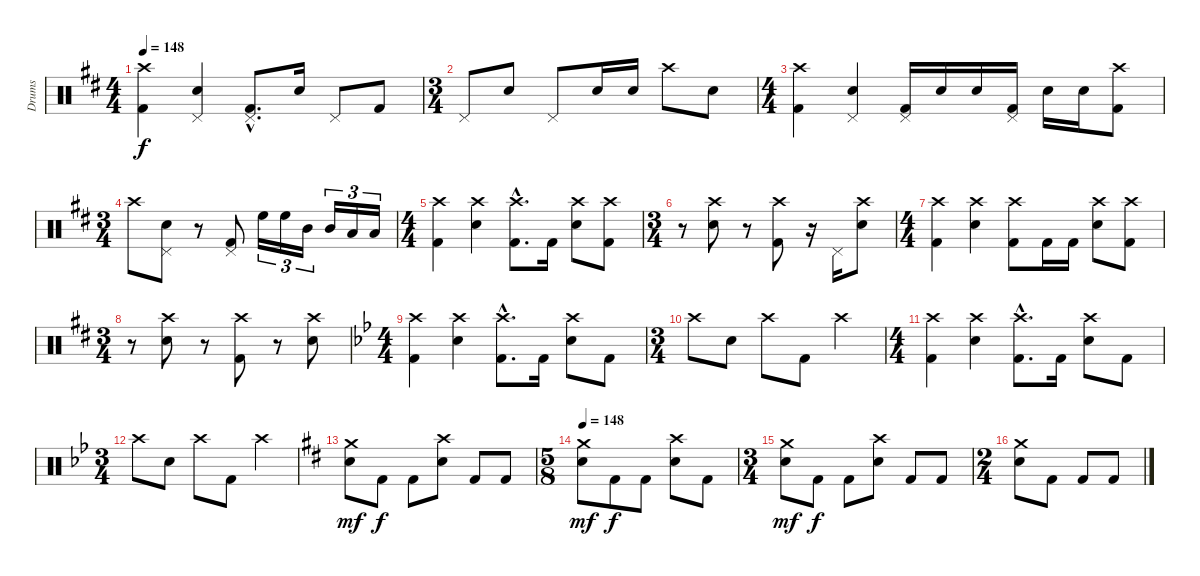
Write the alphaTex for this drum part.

\track ("Drums" "Drums") {instrument percussion}
\staff {score}
\articulation defaults
\ts (4 4)
\tempo 148
\clef neutral
\ks d
("Kick (hit) 2" "Crash high (hit)").4{dy f} ("Electric Snare (hit)" "Pedal Hi-Hat (hit)").4 ("Kick (hit) 2"{hac} "Pedal Hi-Hat (hit)"{hac}).8{d} "Electric Snare (hit)".16 "Pedal Hi-Hat (hit)".8 "Kick (hit) 2".8 |
\ts (3 4)
"Pedal Hi-Hat (hit)".8 "Electric Snare (hit)".8 "Pedal Hi-Hat (hit)".8 "Electric Snare (hit)".16 "Electric Snare (hit)".16 "Crash high (hit)".8 "Electric Snare (hit)".8 |
\ts (4 4)
("Kick (hit) 2" "Crash high (hit)").4 ("Electric Snare (hit)" "Pedal Hi-Hat (hit)").4 ("Kick (hit) 2" "Pedal Hi-Hat (hit)").16 "Electric Snare (hit)".16 "Electric Snare (hit)".16 ("Kick (hit) 2" "Pedal Hi-Hat (hit)").16 "Electric Snare (hit)".16 "Electric Snare (hit)".16 ("Kick (hit) 2" "Crash high (hit)").8 |
\ts (3 4)
"Crash high (hit)".8 ("Electric Snare (hit)" "Pedal Hi-Hat (hit)").8 r.8 ("Kick (hit) 2" "Pedal Hi-Hat (hit)").8 "High Floor Tom (hit)".16{tu (3 2)} "High Floor Tom (hit)".16{tu (3 2)} "Mid Tom (hit)".16{tu (3 2)} "Mid Tom (hit)".16{tu (3 2)} "Low Tom (hit)".16{tu (3 2)} "Low Tom (hit)".16{tu (3 2)} |
\ts (4 4)
("Kick (hit) 2" "Crash high (hit)").4 ("Electric Snare (hit)" "Crash high (hit)").4 ("Kick (hit) 2"{hac} "Crash high (hit)"{hac}).8{d} "Kick (hit) 2".16 ("Electric Snare (hit)" "Crash high (hit)").8 ("Kick (hit) 2" "Crash high (hit)").8 |
\ts (3 4)
r.8 ("Electric Snare (hit)" "Crash high (hit)").8 r.8 ("Kick (hit) 2" "Crash high (hit)").8 r.16 "Pedal Hi-Hat (hit)".16 ("Electric Snare (hit)" "Crash high (hit)").8 |
\ts (4 4)
("Kick (hit) 2" "Crash high (hit)").4 ("Electric Snare (hit)" "Crash high (hit)").4 ("Kick (hit) 2" "Crash high (hit)").8 "Kick (hit) 2".16 "Kick (hit) 2".16 ("Electric Snare (hit)" "Crash high (hit)").8 ("Kick (hit) 2" "Crash high (hit)").8 |
\ts (3 4)
r.8 ("Electric Snare (hit)" "Crash high (hit)").8 r.8 ("Kick (hit) 2" "Crash high (hit)").8 r.8 ("Electric Snare (hit)" "Crash high (hit)").8 |
\ts (4 4)
\ks bb
("Kick (hit) 2" "Crash high (hit)").4 ("Electric Snare (hit)" "Crash high (hit)").4 ("Kick (hit) 2"{hac} "Crash high (hit)"{hac}).8{d} "Kick (hit) 2".16 ("Electric Snare (hit)" "Crash high (hit)").8 "Kick (hit) 2".8 |
\ts (3 4)
"Crash high (hit)".8 "Electric Snare (hit)".8 "Crash high (hit)".8 "Kick (hit) 2".8 "Crash high (hit)".4 |
\ts (4 4)
("Kick (hit) 2" "Crash high (hit)").4 ("Electric Snare (hit)" "Crash high (hit)").4 ("Kick (hit) 2"{hac} "Crash high (hit)"{hac}).8{d} "Kick (hit) 2".16 ("Electric Snare (hit)" "Crash high (hit)").8 "Kick (hit) 2".8 |
\ts (3 4)
"Crash high (hit)".8 "Electric Snare (hit)".8 "Crash high (hit)".8 "Kick (hit) 2".8 "Crash high (hit)".4 |
\ks d
("Electric Snare (hit)" "Crash medium (hit)").8{dy mf} "Kick (hit) 2".8{dy f} "Kick (hit) 2".8 ("Electric Snare (hit)" "Crash high (hit)").8 "Kick (hit) 2".8 "Kick (hit) 2".8 |
\ts (5 8)
\tempo 148
("Electric Snare (hit)" "Crash medium (hit)").8{dy mf} "Kick (hit) 2".8{dy f} "Kick (hit) 2".8 ("Electric Snare (hit)" "Crash high (hit)").8 "Kick (hit) 2".8 |
\ts (3 4)
("Electric Snare (hit)" "Crash medium (hit)").8{dy mf} "Kick (hit) 2".8{dy f} "Kick (hit) 2".8 ("Electric Snare (hit)" "Crash high (hit)").8 "Kick (hit) 2".8 "Kick (hit) 2".8 |
\ts (2 4)
("Electric Snare (hit)" "Crash medium (hit)").8 "Kick (hit) 2".8 "Kick (hit) 2".8 "Kick (hit) 2".8
